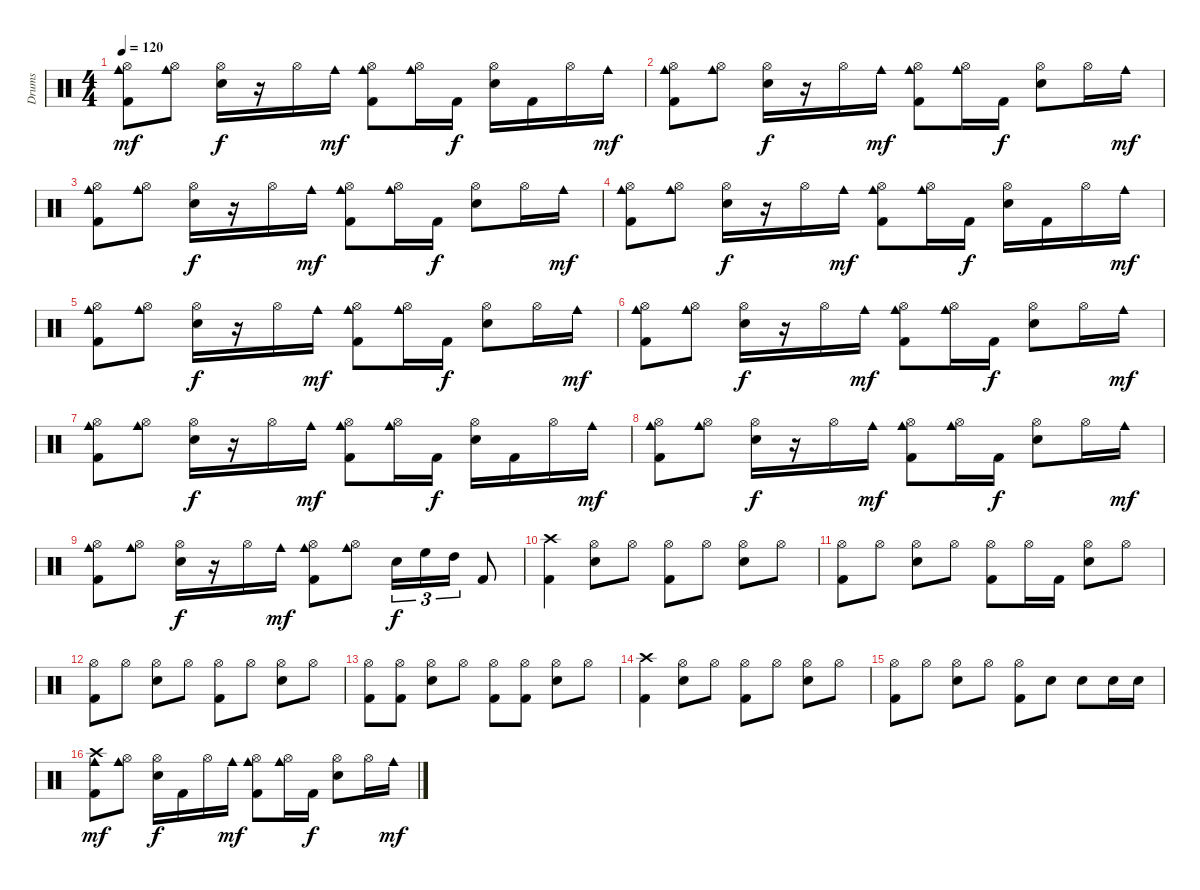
\track ("Drums" "Drums") {instrument percussion}
\staff {score}
\articulation defaults
\ts (4 4)
\tempo 120
\clef neutral
\ks c
("Kick (hit) 2" "Hi-Hat (open)" "Cowbell medium (hit)").8{dy mf} ("Hi-Hat (open)" "Cowbell medium (hit)").8 ("Snare (hit) 2" "Hi-Hat (open)").16{dy f} r.16 "Hi-Hat (open)".16 "Cowbell medium (hit)".16{dy mf} ("Kick (hit) 2" "Hi-Hat (open)" "Cowbell medium (hit)").8 ("Hi-Hat (open)" "Cowbell medium (hit)").16 "Kick (hit) 2".16{dy f} ("Snare (hit) 2" "Hi-Hat (open)").16 "Kick (hit) 2".16 "Hi-Hat (open)".16 "Cowbell medium (hit)".16{dy mf} |
("Kick (hit) 2" "Hi-Hat (open)" "Cowbell medium (hit)").8 ("Hi-Hat (open)" "Cowbell medium (hit)").8 ("Snare (hit) 2" "Hi-Hat (open)").16{dy f} r.16 "Hi-Hat (open)".16 "Cowbell medium (hit)".16{dy mf} ("Kick (hit) 2" "Hi-Hat (open)" "Cowbell medium (hit)").8 ("Hi-Hat (open)" "Cowbell medium (hit)").16 "Kick (hit) 2".16{dy f} ("Snare (hit) 2" "Hi-Hat (open)").8 "Hi-Hat (open)".16 "Cowbell medium (hit)".16{dy mf} |
("Kick (hit) 2" "Hi-Hat (open)" "Cowbell medium (hit)").8 ("Hi-Hat (open)" "Cowbell medium (hit)").8 ("Snare (hit) 2" "Hi-Hat (open)").16{dy f} r.16 "Hi-Hat (open)".16 "Cowbell medium (hit)".16{dy mf} ("Kick (hit) 2" "Hi-Hat (open)" "Cowbell medium (hit)").8 ("Hi-Hat (open)" "Cowbell medium (hit)").16 "Kick (hit) 2".16{dy f} ("Snare (hit) 2" "Hi-Hat (open)").8 "Hi-Hat (open)".16 "Cowbell medium (hit)".16{dy mf} |
("Kick (hit) 2" "Hi-Hat (open)" "Cowbell medium (hit)").8 ("Hi-Hat (open)" "Cowbell medium (hit)").8 ("Snare (hit) 2" "Hi-Hat (open)").16{dy f} r.16 "Hi-Hat (open)".16 "Cowbell medium (hit)".16{dy mf} ("Kick (hit) 2" "Hi-Hat (open)" "Cowbell medium (hit)").8 ("Hi-Hat (open)" "Cowbell medium (hit)").16 "Kick (hit) 2".16{dy f} ("Snare (hit) 2" "Hi-Hat (open)").16 "Kick (hit) 2".16 "Hi-Hat (open)".16 "Cowbell medium (hit)".16{dy mf} |
("Kick (hit) 2" "Hi-Hat (open)" "Cowbell medium (hit)").8 ("Hi-Hat (open)" "Cowbell medium (hit)").8 ("Snare (hit) 2" "Hi-Hat (open)").16{dy f} r.16 "Hi-Hat (open)".16 "Cowbell medium (hit)".16{dy mf} ("Kick (hit) 2" "Hi-Hat (open)" "Cowbell medium (hit)").8 ("Hi-Hat (open)" "Cowbell medium (hit)").16 "Kick (hit) 2".16{dy f} ("Snare (hit) 2" "Hi-Hat (open)").8 "Hi-Hat (open)".16 "Cowbell medium (hit)".16{dy mf} |
("Kick (hit) 2" "Hi-Hat (open)" "Cowbell medium (hit)").8 ("Hi-Hat (open)" "Cowbell medium (hit)").8 ("Snare (hit) 2" "Hi-Hat (open)").16{dy f} r.16 "Hi-Hat (open)".16 "Cowbell medium (hit)".16{dy mf} ("Kick (hit) 2" "Hi-Hat (open)" "Cowbell medium (hit)").8 ("Hi-Hat (open)" "Cowbell medium (hit)").16 "Kick (hit) 2".16{dy f} ("Snare (hit) 2" "Hi-Hat (open)").8 "Hi-Hat (open)".16 "Cowbell medium (hit)".16{dy mf} |
("Kick (hit) 2" "Hi-Hat (open)" "Cowbell medium (hit)").8 ("Hi-Hat (open)" "Cowbell medium (hit)").8 ("Snare (hit) 2" "Hi-Hat (open)").16{dy f} r.16 "Hi-Hat (open)".16 "Cowbell medium (hit)".16{dy mf} ("Kick (hit) 2" "Hi-Hat (open)" "Cowbell medium (hit)").8 ("Hi-Hat (open)" "Cowbell medium (hit)").16 "Kick (hit) 2".16{dy f} ("Snare (hit) 2" "Hi-Hat (open)").16 "Kick (hit) 2".16 "Hi-Hat (open)".16 "Cowbell medium (hit)".16{dy mf} |
("Kick (hit) 2" "Hi-Hat (open)" "Cowbell medium (hit)").8 ("Hi-Hat (open)" "Cowbell medium (hit)").8 ("Snare (hit) 2" "Hi-Hat (open)").16{dy f} r.16 "Hi-Hat (open)".16 "Cowbell medium (hit)".16{dy mf} ("Kick (hit) 2" "Hi-Hat (open)" "Cowbell medium (hit)").8 ("Hi-Hat (open)" "Cowbell medium (hit)").16 "Kick (hit) 2".16{dy f} ("Snare (hit) 2" "Hi-Hat (open)").8 "Hi-Hat (open)".16 "Cowbell medium (hit)".16{dy mf} |
("Kick (hit) 2" "Hi-Hat (open)" "Cowbell medium (hit)").8 ("Hi-Hat (open)" "Cowbell medium (hit)").8 ("Snare (hit) 2" "Hi-Hat (open)").16{dy f} r.16 "Hi-Hat (open)".16 "Cowbell medium (hit)".16{dy mf} ("Kick (hit) 2" "Hi-Hat (open)" "Cowbell medium (hit)").8 ("Hi-Hat (open)" "Cowbell medium (hit)").8 "Snare (hit) 2".16{tu (3 2) dy f} "High Floor Tom (hit)".16{tu (3 2)} "High Tom (hit)".16{tu (3 2)} "Kick (hit) 2".8 |
("Kick (hit) 2" "Crash high (hit)").4 ("Snare (hit) 2" "Hi-Hat (open)").8 "Hi-Hat (open)".8 ("Kick (hit) 2" "Hi-Hat (open)").8 "Hi-Hat (open)".8 ("Snare (hit) 2" "Hi-Hat (open)").8 "Hi-Hat (open)".8 |
("Kick (hit) 2" "Hi-Hat (open)").8 "Hi-Hat (open)".8 ("Snare (hit) 2" "Hi-Hat (open)").8 "Hi-Hat (open)".8 ("Kick (hit) 2" "Hi-Hat (open)").8 "Hi-Hat (open)".16 "Kick (hit) 2".16 ("Snare (hit) 2" "Hi-Hat (open)").8 "Hi-Hat (open)".8 |
("Kick (hit) 2" "Hi-Hat (open)").8 "Hi-Hat (open)".8 ("Snare (hit) 2" "Hi-Hat (open)").8 "Hi-Hat (open)".8 ("Kick (hit) 2" "Hi-Hat (open)").8 "Hi-Hat (open)".8 ("Snare (hit) 2" "Hi-Hat (open)").8 "Hi-Hat (open)".8 |
("Kick (hit) 2" "Hi-Hat (open)").8 ("Kick (hit) 2" "Hi-Hat (open)").8 ("Snare (hit) 2" "Hi-Hat (open)").8 "Hi-Hat (open)".8 ("Kick (hit) 2" "Hi-Hat (open)").8 ("Kick (hit) 2" "Hi-Hat (open)").8 ("Snare (hit) 2" "Hi-Hat (open)").8 "Hi-Hat (open)".8 |
("Kick (hit) 2" "Crash high (hit)").4 ("Snare (hit) 2" "Hi-Hat (open)").8 "Hi-Hat (open)".8 ("Kick (hit) 2" "Hi-Hat (open)").8 "Hi-Hat (open)".8 ("Snare (hit) 2" "Hi-Hat (open)").8 "Hi-Hat (open)".8 |
("Kick (hit) 2" "Hi-Hat (open)").8 "Hi-Hat (open)".8 ("Snare (hit) 2" "Hi-Hat (open)").8 "Hi-Hat (open)".8 ("Kick (hit) 2" "Hi-Hat (open)").8 "Snare (hit) 2".8 "Snare (hit) 2".8 "Snare (hit) 2".16 "Snare (hit) 2".16 |
("Kick (hit) 2" "Crash high (hit)" "Cowbell medium (hit)").8{dy mf} ("Hi-Hat (open)" "Cowbell medium (hit)").8 ("Snare (hit) 2" "Hi-Hat (open)").16{dy f} "Kick (hit) 2".16 "Hi-Hat (open)".16 "Cowbell medium (hit)".16{dy mf} ("Kick (hit) 2" "Hi-Hat (open)" "Cowbell medium (hit)").8 ("Hi-Hat (open)" "Cowbell medium (hit)").16 "Kick (hit) 2".16{dy f} ("Snare (hit) 2" "Hi-Hat (open)").8 "Hi-Hat (open)".16 "Cowbell medium (hit)".16{dy mf}
